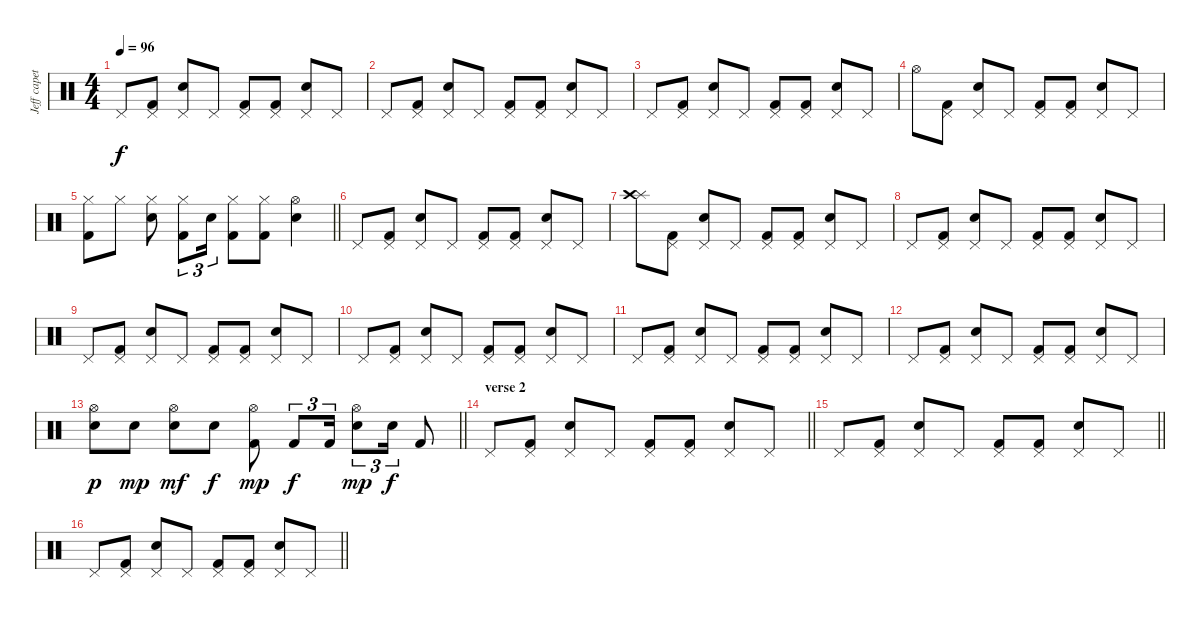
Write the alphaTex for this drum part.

\track ("Jeff capetally" "Jeff capet") {instrument percussion}
\staff {score}
\articulation defaults
\ts (4 4)
\tempo 96
\clef neutral
\ks c "Pedal Hi-Hat (hit)".8{dy f}
("Pedal Hi-Hat (hit)" "Kick (hit) 2").8 ("Pedal Hi-Hat (hit)" "Snare (hit) 2").8 "Pedal Hi-Hat (hit)".8 ("Pedal Hi-Hat (hit)" "Kick (hit) 2").8 ("Pedal Hi-Hat (hit)" "Kick (hit) 2").8 ("Pedal Hi-Hat (hit)" "Snare (hit) 2").8 "Pedal Hi-Hat (hit)".8 |
"Pedal Hi-Hat (hit)".8 ("Pedal Hi-Hat (hit)" "Kick (hit) 2").8 ("Pedal Hi-Hat (hit)" "Snare (hit) 2").8 "Pedal Hi-Hat (hit)".8 ("Pedal Hi-Hat (hit)" "Kick (hit) 2").8 ("Pedal Hi-Hat (hit)" "Kick (hit) 2").8 ("Pedal Hi-Hat (hit)" "Snare (hit) 2").8 "Pedal Hi-Hat (hit)".8 |
"Pedal Hi-Hat (hit)".8 ("Pedal Hi-Hat (hit)" "Kick (hit) 2").8 ("Pedal Hi-Hat (hit)" "Snare (hit) 2").8 "Pedal Hi-Hat (hit)".8 ("Pedal Hi-Hat (hit)" "Kick (hit) 2").8 ("Pedal Hi-Hat (hit)" "Kick (hit) 2").8 ("Pedal Hi-Hat (hit)" "Snare (hit) 2").8 "Pedal Hi-Hat (hit)".8 |
"Hi-Hat (open)".8 ("Pedal Hi-Hat (hit)" "Kick (hit) 2").8 ("Pedal Hi-Hat (hit)" "Snare (hit) 2").8 "Pedal Hi-Hat (hit)".8 ("Pedal Hi-Hat (hit)" "Kick (hit) 2").8 ("Pedal Hi-Hat (hit)" "Kick (hit) 2").8 ("Pedal Hi-Hat (hit)" "Snare (hit) 2").8 "Pedal Hi-Hat (hit)".8 |
\barLineRight lightlight
("Hi-Hat (closed)" "Kick (hit) 2").8 "Hi-Hat (closed)".8 ("Hi-Hat (closed)" "Snare (hit) 2").8 ("Hi-Hat (closed)" "Kick (hit) 2").8{tu (3 2)} "Snare (hit) 2".16{tu (3 2)} ("Hi-Hat (closed)" "Kick (hit) 2").8 ("Hi-Hat (closed)" "Kick (hit) 2").8 ("Hi-Hat (open)" "Snare (hit) 2").4 |
"Pedal Hi-Hat (hit)".8 ("Pedal Hi-Hat (hit)" "Kick (hit) 2").8 ("Pedal Hi-Hat (hit)" "Snare (hit) 2").8 "Pedal Hi-Hat (hit)".8 ("Pedal Hi-Hat (hit)" "Kick (hit) 2").8 ("Pedal Hi-Hat (hit)" "Kick (hit) 2").8 ("Pedal Hi-Hat (hit)" "Snare (hit) 2").8 "Pedal Hi-Hat (hit)".8 |
("Splash (hit)" "Crash high (hit)").8 ("Pedal Hi-Hat (hit)" "Kick (hit) 2").8 ("Pedal Hi-Hat (hit)" "Snare (hit) 2").8 "Pedal Hi-Hat (hit)".8 ("Pedal Hi-Hat (hit)" "Kick (hit) 2").8 ("Pedal Hi-Hat (hit)" "Kick (hit) 2").8 ("Pedal Hi-Hat (hit)" "Snare (hit) 2").8 "Pedal Hi-Hat (hit)".8 |
"Pedal Hi-Hat (hit)".8 ("Pedal Hi-Hat (hit)" "Kick (hit) 2").8 ("Pedal Hi-Hat (hit)" "Snare (hit) 2").8 "Pedal Hi-Hat (hit)".8 ("Pedal Hi-Hat (hit)" "Kick (hit) 2").8 ("Pedal Hi-Hat (hit)" "Kick (hit) 2").8 ("Pedal Hi-Hat (hit)" "Snare (hit) 2").8 "Pedal Hi-Hat (hit)".8 |
"Pedal Hi-Hat (hit)".8 ("Pedal Hi-Hat (hit)" "Kick (hit) 2").8 ("Pedal Hi-Hat (hit)" "Snare (hit) 2").8 "Pedal Hi-Hat (hit)".8 ("Pedal Hi-Hat (hit)" "Kick (hit) 2").8 ("Pedal Hi-Hat (hit)" "Kick (hit) 2").8 ("Pedal Hi-Hat (hit)" "Snare (hit) 2").8 "Pedal Hi-Hat (hit)".8 |
"Pedal Hi-Hat (hit)".8 ("Pedal Hi-Hat (hit)" "Kick (hit) 2").8 ("Pedal Hi-Hat (hit)" "Snare (hit) 2").8 "Pedal Hi-Hat (hit)".8 ("Pedal Hi-Hat (hit)" "Kick (hit) 2").8 ("Pedal Hi-Hat (hit)" "Kick (hit) 2").8 ("Pedal Hi-Hat (hit)" "Snare (hit) 2").8 "Pedal Hi-Hat (hit)".8 |
"Pedal Hi-Hat (hit)".8 ("Pedal Hi-Hat (hit)" "Kick (hit) 2").8 ("Pedal Hi-Hat (hit)" "Snare (hit) 2").8 "Pedal Hi-Hat (hit)".8 ("Pedal Hi-Hat (hit)" "Kick (hit) 2").8 ("Pedal Hi-Hat (hit)" "Kick (hit) 2").8 ("Pedal Hi-Hat (hit)" "Snare (hit) 2").8 "Pedal Hi-Hat (hit)".8 |
"Pedal Hi-Hat (hit)".8 ("Pedal Hi-Hat (hit)" "Kick (hit) 2").8 ("Pedal Hi-Hat (hit)" "Snare (hit) 2").8 "Pedal Hi-Hat (hit)".8 ("Pedal Hi-Hat (hit)" "Kick (hit) 2").8 ("Pedal Hi-Hat (hit)" "Kick (hit) 2").8 ("Pedal Hi-Hat (hit)" "Snare (hit) 2").8 "Pedal Hi-Hat (hit)".8 |
\barLineRight lightlight
("Hi-Hat (open)" "Snare (hit) 2").8{dy p} "Snare (hit) 2".8{dy mp} ("Hi-Hat (open)" "Snare (hit) 2").8{dy mf} "Snare (hit) 2".8{dy f} ("Hi-Hat (open)" "Kick (hit) 2").8{dy mp} "Kick (hit) 2".8{tu (3 2) dy f} "Kick (hit) 2".16{tu (3 2)} ("Hi-Hat (open)" "Snare (hit) 2").8{tu (3 2) dy mp} "Snare (hit) 2".16{tu (3 2) dy f} "Kick (hit) 2".8 |
\section ("" "verse 2")
\barLineRight lightlight "Pedal Hi-Hat (hit)".8
("Pedal Hi-Hat (hit)" "Kick (hit) 2").8 ("Pedal Hi-Hat (hit)" "Snare (hit) 2").8 "Pedal Hi-Hat (hit)".8 ("Pedal Hi-Hat (hit)" "Kick (hit) 2").8 ("Pedal Hi-Hat (hit)" "Kick (hit) 2").8 ("Pedal Hi-Hat (hit)" "Snare (hit) 2").8 "Pedal Hi-Hat (hit)".8 |
\barLineRight lightlight "Pedal Hi-Hat (hit)".8
("Pedal Hi-Hat (hit)" "Kick (hit) 2").8 ("Pedal Hi-Hat (hit)" "Snare (hit) 2").8 "Pedal Hi-Hat (hit)".8 ("Pedal Hi-Hat (hit)" "Kick (hit) 2").8 ("Pedal Hi-Hat (hit)" "Kick (hit) 2").8 ("Pedal Hi-Hat (hit)" "Snare (hit) 2").8 "Pedal Hi-Hat (hit)".8 |
\barLineRight lightlight "Pedal Hi-Hat (hit)".8
("Pedal Hi-Hat (hit)" "Kick (hit) 2").8 ("Pedal Hi-Hat (hit)" "Snare (hit) 2").8 "Pedal Hi-Hat (hit)".8 ("Pedal Hi-Hat (hit)" "Kick (hit) 2").8 ("Pedal Hi-Hat (hit)" "Kick (hit) 2").8 ("Pedal Hi-Hat (hit)" "Snare (hit) 2").8 "Pedal Hi-Hat (hit)".8
